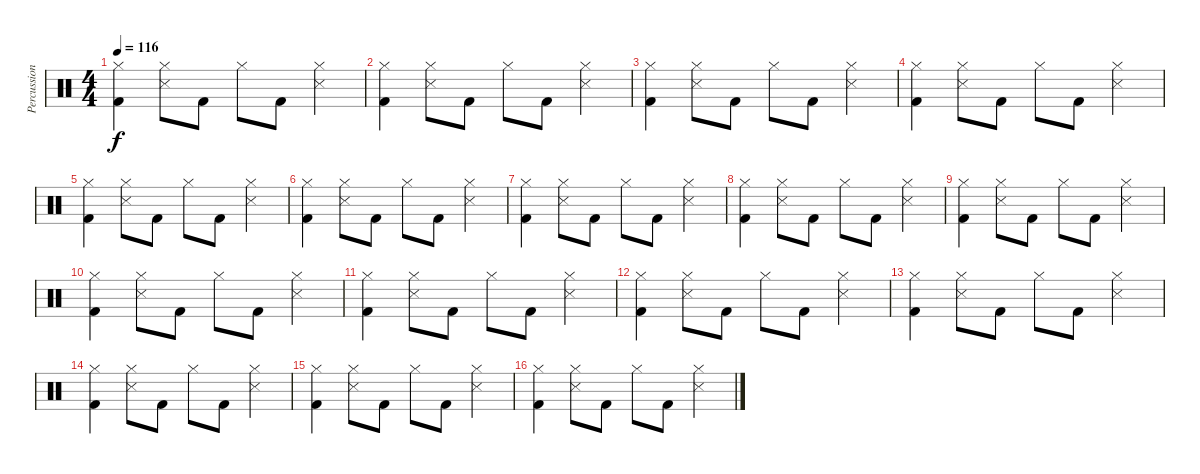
\track ("Percussions" "Percussion") {instrument percussion}
\staff {score}
\articulation defaults
\ts (4 4)
\tempo 116
\clef neutral
\ks c
("Hi-Hat (closed)" "Kick (hit) 2").4{dy f} ("Hi-Hat (closed)" "Snare (side stick) 3").8 "Kick (hit) 2".8 "Hi-Hat (closed)".8 "Kick (hit) 2".8 ("Hi-Hat (closed)" "Snare (side stick) 3").4 |
("Hi-Hat (closed)" "Kick (hit) 2").4 ("Hi-Hat (closed)" "Snare (side stick) 3").8 "Kick (hit) 2".8 "Hi-Hat (closed)".8 "Kick (hit) 2".8 ("Hi-Hat (closed)" "Snare (side stick) 3").4 |
("Hi-Hat (closed)" "Kick (hit) 2").4 ("Hi-Hat (closed)" "Snare (side stick) 3").8 "Kick (hit) 2".8 "Hi-Hat (closed)".8 "Kick (hit) 2".8 ("Hi-Hat (closed)" "Snare (side stick) 3").4 |
("Hi-Hat (closed)" "Kick (hit) 2").4 ("Hi-Hat (closed)" "Snare (side stick) 3").8 "Kick (hit) 2".8 "Hi-Hat (closed)".8 "Kick (hit) 2".8 ("Hi-Hat (closed)" "Snare (side stick) 3").4 |
("Hi-Hat (closed)" "Kick (hit) 2").4 ("Hi-Hat (closed)" "Snare (side stick) 3").8 "Kick (hit) 2".8 "Hi-Hat (closed)".8 "Kick (hit) 2".8 ("Hi-Hat (closed)" "Snare (side stick) 3").4 |
("Hi-Hat (closed)" "Kick (hit) 2").4 ("Hi-Hat (closed)" "Snare (side stick) 3").8 "Kick (hit) 2".8 "Hi-Hat (closed)".8 "Kick (hit) 2".8 ("Hi-Hat (closed)" "Snare (side stick) 3").4 |
("Hi-Hat (closed)" "Kick (hit) 2").4 ("Hi-Hat (closed)" "Snare (side stick) 3").8 "Kick (hit) 2".8 "Hi-Hat (closed)".8 "Kick (hit) 2".8 ("Hi-Hat (closed)" "Snare (side stick) 3").4 |
("Hi-Hat (closed)" "Kick (hit) 2").4 ("Hi-Hat (closed)" "Snare (side stick) 3").8 "Kick (hit) 2".8 "Hi-Hat (closed)".8 "Kick (hit) 2".8 ("Hi-Hat (closed)" "Snare (side stick) 3").4 |
("Hi-Hat (closed)" "Kick (hit) 2").4 ("Hi-Hat (closed)" "Snare (side stick) 3").8 "Kick (hit) 2".8 "Hi-Hat (closed)".8 "Kick (hit) 2".8 ("Hi-Hat (closed)" "Snare (side stick) 3").4 |
("Hi-Hat (closed)" "Kick (hit) 2").4 ("Hi-Hat (closed)" "Snare (side stick) 3").8 "Kick (hit) 2".8 "Hi-Hat (closed)".8 "Kick (hit) 2".8 ("Hi-Hat (closed)" "Snare (side stick) 3").4 |
("Hi-Hat (closed)" "Kick (hit) 2").4 ("Hi-Hat (closed)" "Snare (side stick) 3").8 "Kick (hit) 2".8 "Hi-Hat (closed)".8 "Kick (hit) 2".8 ("Hi-Hat (closed)" "Snare (side stick) 3").4 |
("Hi-Hat (closed)" "Kick (hit) 2").4 ("Hi-Hat (closed)" "Snare (side stick) 3").8 "Kick (hit) 2".8 "Hi-Hat (closed)".8 "Kick (hit) 2".8 ("Hi-Hat (closed)" "Snare (side stick) 3").4 |
("Hi-Hat (closed)" "Kick (hit) 2").4 ("Hi-Hat (closed)" "Snare (side stick) 3").8 "Kick (hit) 2".8 "Hi-Hat (closed)".8 "Kick (hit) 2".8 ("Hi-Hat (closed)" "Snare (side stick) 3").4 |
("Hi-Hat (closed)" "Kick (hit) 2").4 ("Hi-Hat (closed)" "Snare (side stick) 3").8 "Kick (hit) 2".8 "Hi-Hat (closed)".8 "Kick (hit) 2".8 ("Hi-Hat (closed)" "Snare (side stick) 3").4 |
("Hi-Hat (closed)" "Kick (hit) 2").4 ("Hi-Hat (closed)" "Snare (side stick) 3").8 "Kick (hit) 2".8 "Hi-Hat (closed)".8 "Kick (hit) 2".8 ("Hi-Hat (closed)" "Snare (side stick) 3").4 |
("Hi-Hat (closed)" "Kick (hit) 2").4 ("Hi-Hat (closed)" "Snare (side stick) 3").8 "Kick (hit) 2".8 "Hi-Hat (closed)".8 "Kick (hit) 2".8 ("Hi-Hat (closed)" "Snare (side stick) 3").4
